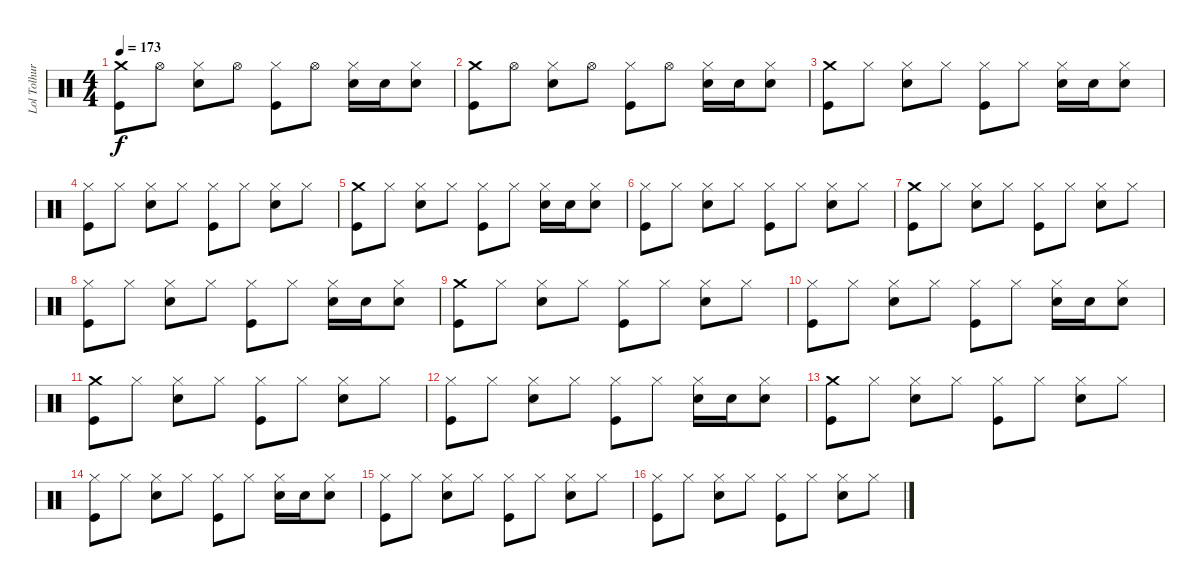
\track ("Lol Tolhurst" "Lol Tolhur") {instrument percussion}
\staff {score}
\articulation defaults
\ts (4 4)
\tempo 173
\clef neutral
\ks c
("Crash medium (hit)" "Kick (hit)").8{dy f} "Hi-Hat (open)".8 ("Hi-Hat (closed)" "Snare (hit) 2").8 "Hi-Hat (open)".8 ("Hi-Hat (closed)" "Kick (hit)").8 "Hi-Hat (open)".8 ("Hi-Hat (closed)" "Snare (hit) 2").16 "Snare (hit) 2".16 ("Hi-Hat (closed)" "Snare (hit) 2").8 |
("Crash medium (hit)" "Kick (hit)").8 "Hi-Hat (open)".8 ("Hi-Hat (closed)" "Snare (hit) 2").8 "Hi-Hat (open)".8 ("Hi-Hat (closed)" "Kick (hit)").8 "Hi-Hat (open)".8 ("Hi-Hat (closed)" "Snare (hit) 2").16 "Snare (hit) 2".16 ("Hi-Hat (closed)" "Snare (hit) 2").8 |
("Crash medium (hit)" "Kick (hit)").8 "Hi-Hat (closed)".8 ("Hi-Hat (closed)" "Snare (hit) 2").8 "Hi-Hat (closed)".8 ("Hi-Hat (closed)" "Kick (hit)").8 "Hi-Hat (closed)".8 ("Hi-Hat (closed)" "Snare (hit) 2").16 "Snare (hit) 2".16 ("Hi-Hat (closed)" "Snare (hit) 2").8 |
("Hi-Hat (closed)" "Kick (hit)").8 "Hi-Hat (closed)".8 ("Hi-Hat (closed)" "Snare (hit) 2").8 "Hi-Hat (closed)".8 ("Hi-Hat (closed)" "Kick (hit)").8 "Hi-Hat (closed)".8 ("Hi-Hat (closed)" "Snare (hit) 2").8 "Hi-Hat (closed)".8 |
("Crash medium (hit)" "Kick (hit)").8 "Hi-Hat (closed)".8 ("Hi-Hat (closed)" "Snare (hit) 2").8 "Hi-Hat (closed)".8 ("Hi-Hat (closed)" "Kick (hit)").8 "Hi-Hat (closed)".8 ("Hi-Hat (closed)" "Snare (hit) 2").16 "Snare (hit) 2".16 ("Hi-Hat (closed)" "Snare (hit) 2").8 |
("Hi-Hat (closed)" "Kick (hit)").8 "Hi-Hat (closed)".8 ("Hi-Hat (closed)" "Snare (hit) 2").8 "Hi-Hat (closed)".8 ("Hi-Hat (closed)" "Kick (hit)").8 "Hi-Hat (closed)".8 ("Hi-Hat (closed)" "Snare (hit) 2").8 "Hi-Hat (closed)".8 |
("Crash medium (hit)" "Kick (hit)").8 "Hi-Hat (closed)".8 ("Hi-Hat (closed)" "Snare (hit) 2").8 "Hi-Hat (closed)".8 ("Hi-Hat (closed)" "Kick (hit)").8 "Hi-Hat (closed)".8 ("Hi-Hat (closed)" "Snare (hit) 2").8 "Hi-Hat (closed)".8 |
("Hi-Hat (closed)" "Kick (hit)").8 "Hi-Hat (closed)".8 ("Hi-Hat (closed)" "Snare (hit) 2").8 "Hi-Hat (closed)".8 ("Hi-Hat (closed)" "Kick (hit)").8 "Hi-Hat (closed)".8 ("Hi-Hat (closed)" "Snare (hit) 2").16 "Snare (hit) 2".16 ("Hi-Hat (closed)" "Snare (hit) 2").8 |
("Crash medium (hit)" "Kick (hit)").8 "Hi-Hat (closed)".8 ("Hi-Hat (closed)" "Snare (hit) 2").8 "Hi-Hat (closed)".8 ("Hi-Hat (closed)" "Kick (hit)").8 "Hi-Hat (closed)".8 ("Hi-Hat (closed)" "Snare (hit) 2").8 "Hi-Hat (closed)".8 |
("Hi-Hat (closed)" "Kick (hit)").8 "Hi-Hat (closed)".8 ("Hi-Hat (closed)" "Snare (hit) 2").8 "Hi-Hat (closed)".8 ("Hi-Hat (closed)" "Kick (hit)").8 "Hi-Hat (closed)".8 ("Hi-Hat (closed)" "Snare (hit) 2").16 "Snare (hit) 2".16 ("Hi-Hat (closed)" "Snare (hit) 2").8 |
("Crash medium (hit)" "Kick (hit)").8 "Hi-Hat (closed)".8 ("Hi-Hat (closed)" "Snare (hit) 2").8 "Hi-Hat (closed)".8 ("Hi-Hat (closed)" "Kick (hit)").8 "Hi-Hat (closed)".8 ("Hi-Hat (closed)" "Snare (hit) 2").8 "Hi-Hat (closed)".8 |
("Hi-Hat (closed)" "Kick (hit)").8 "Hi-Hat (closed)".8 ("Hi-Hat (closed)" "Snare (hit) 2").8 "Hi-Hat (closed)".8 ("Hi-Hat (closed)" "Kick (hit)").8 "Hi-Hat (closed)".8 ("Hi-Hat (closed)" "Snare (hit) 2").16 "Snare (hit) 2".16 ("Hi-Hat (closed)" "Snare (hit) 2").8 |
("Crash medium (hit)" "Kick (hit)").8 "Hi-Hat (closed)".8 ("Hi-Hat (closed)" "Snare (hit) 2").8 "Hi-Hat (closed)".8 ("Hi-Hat (closed)" "Kick (hit)").8 "Hi-Hat (closed)".8 ("Hi-Hat (closed)" "Snare (hit) 2").8 "Hi-Hat (closed)".8 |
("Hi-Hat (closed)" "Kick (hit)").8 "Hi-Hat (closed)".8 ("Hi-Hat (closed)" "Snare (hit) 2").8 "Hi-Hat (closed)".8 ("Hi-Hat (closed)" "Kick (hit)").8 "Hi-Hat (closed)".8 ("Hi-Hat (closed)" "Snare (hit) 2").16 "Snare (hit) 2".16 ("Hi-Hat (closed)" "Snare (hit) 2").8 |
("Hi-Hat (closed)" "Kick (hit)").8 "Hi-Hat (closed)".8 ("Hi-Hat (closed)" "Snare (hit) 2").8 "Hi-Hat (closed)".8 ("Hi-Hat (closed)" "Kick (hit)").8 "Hi-Hat (closed)".8 ("Hi-Hat (closed)" "Snare (hit) 2").8 "Hi-Hat (closed)".8 |
("Hi-Hat (closed)" "Kick (hit)").8 "Hi-Hat (closed)".8 ("Hi-Hat (closed)" "Snare (hit) 2").8 "Hi-Hat (closed)".8 ("Hi-Hat (closed)" "Kick (hit)").8 "Hi-Hat (closed)".8 ("Hi-Hat (closed)" "Snare (hit) 2").8 "Hi-Hat (closed)".8
